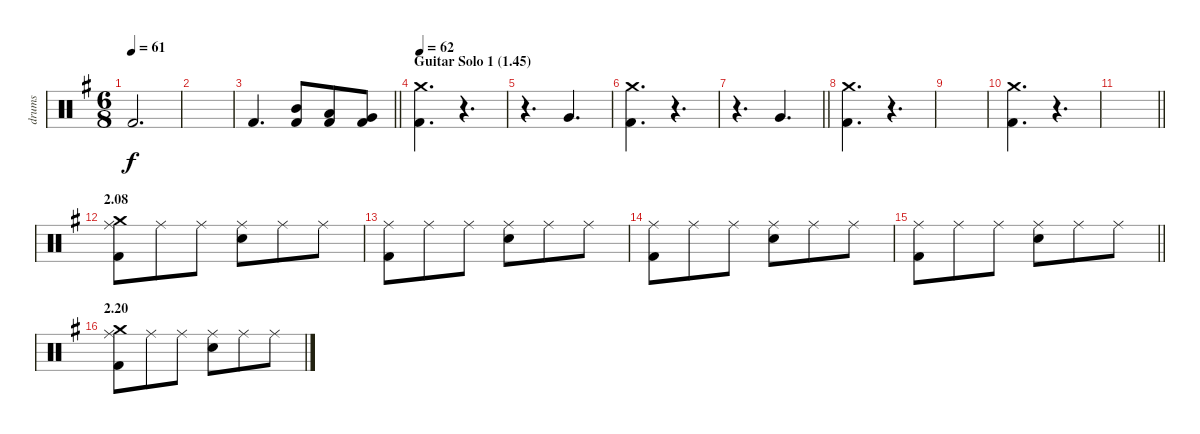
\track ("drums" "drums") {instrument percussion}
\staff {score}
\articulation defaults
\ts (6 8)
\tempo 61
\clef neutral
\ks g "Kick (hit) 2".2{d dy f}
|
|
\barLineRight lightlight "Kick (hit) 2".4{d}
("Mid Tom (hit)" "Kick (hit) 2").8 ("Low Tom (hit)" "Kick (hit) 2").8 ("Very Low Tom (hit)" "Kick (hit) 2").8 |
\section ("" "Guitar Solo 1 (1.45)")
\tempo 62
("Crash medium (hit)" "Kick (hit) 2").4{d} r.4{d} |
r.4{d} "Very Low Tom (hit)".4{d} |
("Crash medium (hit)" "Kick (hit) 2").4{d} r.4{d} |
\barLineRight lightlight
r.4{d} "Very Low Tom (hit)".4{d} |
("Crash medium (hit)" "Kick (hit) 2").4{d} r.4{d} |
|
("Crash medium (hit)" "Kick (hit) 2").4{d} r.4{d} |
\barLineRight lightlight
|
\section ("" "2.08")
("Ride (middle)" "Crash medium (hit)" "Kick (hit) 2").8 "Ride (middle)".8 "Ride (middle)".8 ("Ride (middle)" "Electric Snare (hit)").8 "Ride (middle)".8 "Ride (middle)".8 |
("Ride (middle)" "Kick (hit) 2").8 "Ride (middle)".8 "Ride (middle)".8 ("Ride (middle)" "Electric Snare (hit)").8 "Ride (middle)".8 "Ride (middle)".8 |
("Ride (middle)" "Kick (hit) 2").8 "Ride (middle)".8 "Ride (middle)".8 ("Ride (middle)" "Electric Snare (hit)").8 "Ride (middle)".8 "Ride (middle)".8 |
\barLineRight lightlight
("Ride (middle)" "Kick (hit) 2").8 "Ride (middle)".8 "Ride (middle)".8 ("Ride (middle)" "Electric Snare (hit)").8 "Ride (middle)".8 "Ride (middle)".8 |
\section ("" "2.20")
("Ride (middle)" "Crash medium (hit)" "Kick (hit) 2").8 "Ride (middle)".8 "Ride (middle)".8 ("Ride (middle)" "Electric Snare (hit)").8 "Ride (middle)".8 "Ride (middle)".8
